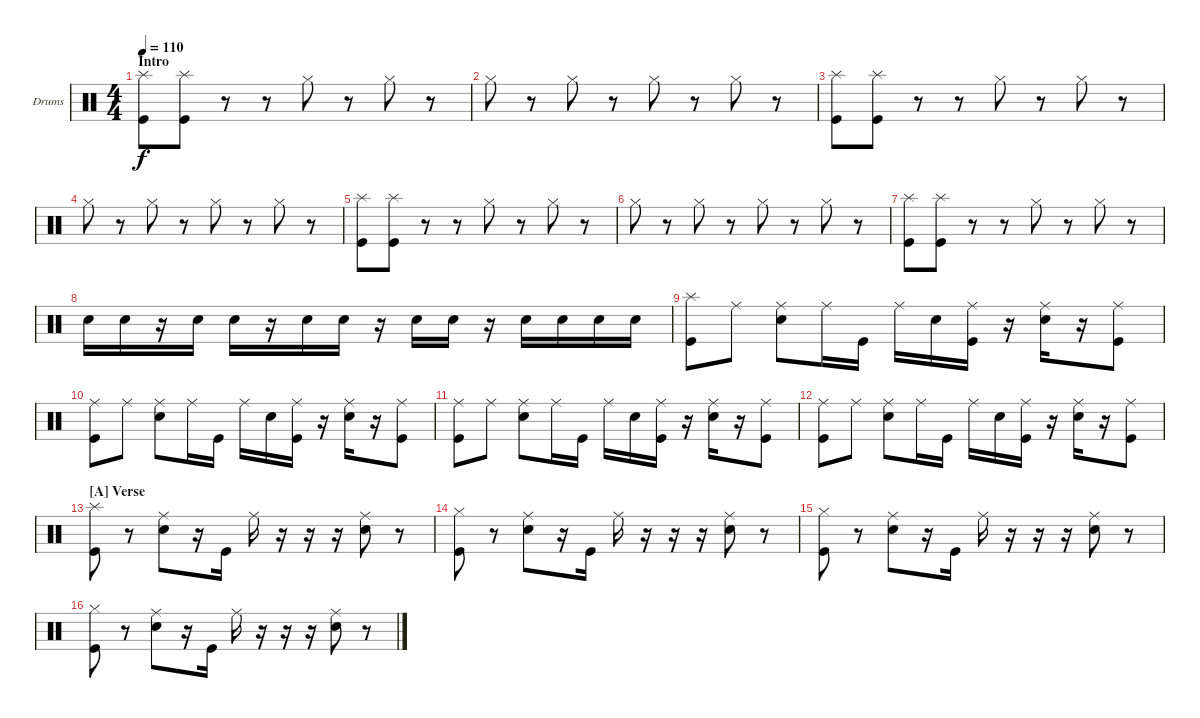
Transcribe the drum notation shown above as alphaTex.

\defaultSystemsLayout 4
\bracketExtendMode groupsimilarinstruments
\firstSystemTrackNameOrientation horizontal
\otherSystemsTrackNameOrientation horizontal
\track ("Drumkit" "Drums") {instrument percussion}
\staff {score}
\articulation defaults
\ts (4 4)
\section ("" "Intro")
\tempo 110
\clef neutral
\ks c
("Splash (hit)" "Kick (hit)").8{dy f} ("Splash (hit)" "Kick (hit)").8 r.8 r.8 "Hi-Hat (closed)".8 r.8 "Hi-Hat (closed)".8 r.8 |
"Hi-Hat (closed)".8 r.8 "Hi-Hat (closed)".8 r.8 "Hi-Hat (closed)".8 r.8 "Hi-Hat (closed)".8 r.8 |
("Splash (hit)" "Kick (hit)").8 ("Splash (hit)" "Kick (hit)").8 r.8 r.8 "Hi-Hat (closed)".8 r.8 "Hi-Hat (closed)".8 r.8 |
"Hi-Hat (closed)".8 r.8 "Hi-Hat (closed)".8 r.8 "Hi-Hat (closed)".8 r.8 "Hi-Hat (closed)".8 r.8 |
("Splash (hit)" "Kick (hit)").8 ("Splash (hit)" "Kick (hit)").8 r.8 r.8 "Hi-Hat (closed)".8 r.8 "Hi-Hat (closed)".8 r.8 |
"Hi-Hat (closed)".8 r.8 "Hi-Hat (closed)".8 r.8 "Hi-Hat (closed)".8 r.8 "Hi-Hat (closed)".8 r.8 |
("Splash (hit)" "Kick (hit)").8 ("Splash (hit)" "Kick (hit)").8 r.8 r.8 "Hi-Hat (closed)".8 r.8 "Hi-Hat (closed)".8 r.8 |
"Snare (hit) 2".16 "Snare (hit) 2".16 r.16 "Snare (hit) 2".16 "Snare (hit) 2".16 r.16 "Snare (hit) 2".16 "Snare (hit) 2".16 r.16 "Snare (hit) 2".16 "Snare (hit) 2".16 r.16 "Snare (hit) 2".16 "Snare (hit) 2".16 "Snare (hit) 2".16 "Snare (hit) 2".16 |
("Splash (hit)" "Kick (hit)").8 "Ride (middle)".8 ("Snare (hit) 2" "Ride (middle)").8 "Ride (middle)".16 "Kick (hit)".16 "Ride (middle)".16 "Snare (hit) 2".16 ("Kick (hit)" "Ride (middle)").16 r.16 ("Snare (hit) 2" "Ride (middle)").16 r.16 ("Kick (hit)" "Ride (middle)").8 |
("Kick (hit)" "Ride (middle)").8 "Ride (middle)".8 ("Snare (hit) 2" "Ride (middle)").8 "Ride (middle)".16 "Kick (hit)".16 "Ride (middle)".16 "Snare (hit) 2".16 ("Kick (hit)" "Ride (middle)").16 r.16 ("Snare (hit) 2" "Ride (middle)").16 r.16 ("Kick (hit)" "Ride (middle)").8 |
("Kick (hit)" "Ride (middle)").8 "Ride (middle)".8 ("Snare (hit) 2" "Ride (middle)").8 "Ride (middle)".16 "Kick (hit)".16 "Ride (middle)".16 "Snare (hit) 2".16 ("Kick (hit)" "Ride (middle)").16 r.16 ("Snare (hit) 2" "Ride (middle)").16 r.16 ("Kick (hit)" "Ride (middle)").8 |
("Kick (hit)" "Ride (middle)").8 "Ride (middle)".8 ("Snare (hit) 2" "Ride (middle)").8 "Ride (middle)".16 "Kick (hit)".16 "Ride (middle)".16 "Snare (hit) 2".16 ("Kick (hit)" "Ride (middle)").16 r.16 ("Snare (hit) 2" "Ride (middle)").16 r.16 ("Kick (hit)" "Ride (middle)").8 |
\section ("A" "Verse")
("Splash (hit)" "Kick (hit)").8 r.8 ("Snare (hit) 2" "Ride (middle)").8 r.16 "Kick (hit)".16 "Ride (middle)".16 r.16 r.16 r.16 ("Snare (hit) 2" "Ride (middle)").8 r.8 |
("Kick (hit)" "Hi-Hat (closed)").8 r.8 ("Snare (hit) 2" "Ride (middle)").8 r.16 "Kick (hit)".16 "Ride (middle)".16 r.16 r.16 r.16 ("Snare (hit) 2" "Ride (middle)").8 r.8 |
("Kick (hit)" "Hi-Hat (closed)").8 r.8 ("Snare (hit) 2" "Ride (middle)").8 r.16 "Kick (hit)".16 "Ride (middle)".16 r.16 r.16 r.16 ("Snare (hit) 2" "Ride (middle)").8 r.8 |
("Kick (hit)" "Hi-Hat (closed)").8 r.8 ("Snare (hit) 2" "Ride (middle)").8 r.16 "Kick (hit)".16 "Ride (middle)".16 r.16 r.16 r.16 ("Snare (hit) 2" "Ride (middle)").8 r.8
